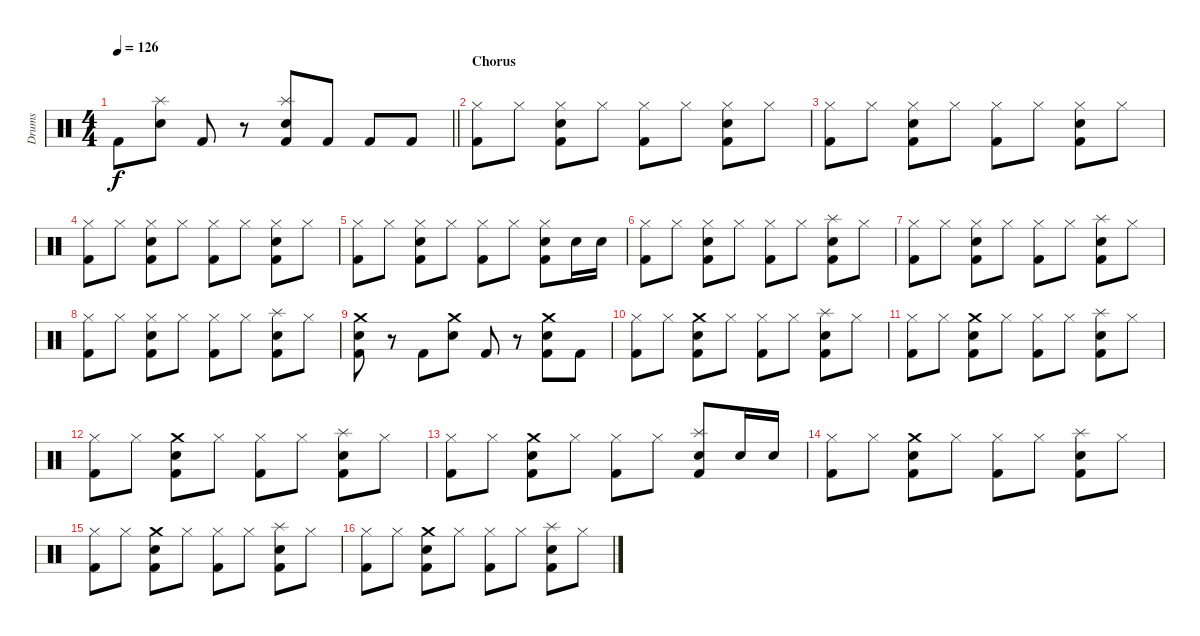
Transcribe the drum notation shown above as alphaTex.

\track ("Drums" "Drums") {instrument percussion}
\staff {score}
\articulation defaults
\ts (4 4)
\tempo 126
\clef neutral
\barLineRight lightlight
\ks c "Kick (hit) 2".8{dy f}
("Splash (hit)" "Electric Snare (hit)").8 "Kick (hit) 2".8 r.8 ("Splash (hit)" "Electric Snare (hit)" "Kick (hit) 2").8 "Kick (hit) 2".8 "Kick (hit) 2".8 "Kick (hit) 2".8 |
\section ("" "Chorus")
("Hi-Hat (closed)" "Kick (hit) 2").8 "Hi-Hat (closed)".8 ("Hi-Hat (closed)" "Electric Snare (hit)" "Kick (hit) 2").8 "Hi-Hat (closed)".8 ("Hi-Hat (closed)" "Kick (hit) 2").8 "Hi-Hat (closed)".8 ("Hi-Hat (closed)" "Electric Snare (hit)" "Kick (hit) 2").8 "Hi-Hat (closed)".8 |
("Hi-Hat (closed)" "Kick (hit) 2").8 "Hi-Hat (closed)".8 ("Hi-Hat (closed)" "Electric Snare (hit)" "Kick (hit) 2").8 "Hi-Hat (closed)".8 ("Hi-Hat (closed)" "Kick (hit) 2").8 "Hi-Hat (closed)".8 ("Hi-Hat (closed)" "Electric Snare (hit)" "Kick (hit) 2").8 "Hi-Hat (closed)".8 |
("Hi-Hat (closed)" "Kick (hit) 2").8 "Hi-Hat (closed)".8 ("Hi-Hat (closed)" "Electric Snare (hit)" "Kick (hit) 2").8 "Hi-Hat (closed)".8 ("Hi-Hat (closed)" "Kick (hit) 2").8 "Hi-Hat (closed)".8 ("Hi-Hat (closed)" "Electric Snare (hit)" "Kick (hit) 2").8 "Hi-Hat (closed)".8 |
("Hi-Hat (closed)" "Kick (hit) 2").8 "Hi-Hat (closed)".8 ("Hi-Hat (closed)" "Electric Snare (hit)" "Kick (hit) 2").8 "Hi-Hat (closed)".8 ("Hi-Hat (closed)" "Kick (hit) 2").8 "Hi-Hat (closed)".8 ("Hi-Hat (closed)" "Electric Snare (hit)" "Kick (hit) 2").8 "Electric Snare (hit)".16 "Electric Snare (hit)".16 |
("Hi-Hat (closed)" "Kick (hit) 2").8 "Hi-Hat (closed)".8 ("Hi-Hat (closed)" "Electric Snare (hit)" "Kick (hit) 2").8 "Hi-Hat (closed)".8 ("Hi-Hat (closed)" "Kick (hit) 2").8 "Hi-Hat (closed)".8 ("Splash (hit)" "Electric Snare (hit)" "Kick (hit) 2").8 "Hi-Hat (closed)".8 |
("Hi-Hat (closed)" "Kick (hit) 2").8 "Hi-Hat (closed)".8 ("Hi-Hat (closed)" "Electric Snare (hit)" "Kick (hit) 2").8 "Hi-Hat (closed)".8 ("Hi-Hat (closed)" "Kick (hit) 2").8 "Hi-Hat (closed)".8 ("Splash (hit)" "Electric Snare (hit)" "Kick (hit) 2").8 "Hi-Hat (closed)".8 |
("Hi-Hat (closed)" "Kick (hit) 2").8 "Hi-Hat (closed)".8 ("Hi-Hat (closed)" "Electric Snare (hit)" "Kick (hit) 2").8 "Hi-Hat (closed)".8 ("Hi-Hat (closed)" "Kick (hit) 2").8 "Hi-Hat (closed)".8 ("Splash (hit)" "Electric Snare (hit)" "Kick (hit) 2").8 "Hi-Hat (closed)".8 |
("Crash medium (hit)" "Electric Snare (hit)" "Kick (hit) 2").8 r.8 "Kick (hit) 2".8 ("Crash medium (hit)" "Electric Snare (hit)").8 "Kick (hit) 2".8 r.8 ("Crash medium (hit)" "Electric Snare (hit)" "Kick (hit) 2").8 "Kick (hit) 2".8 |
("Hi-Hat (closed)" "Kick (hit) 2").8 "Hi-Hat (closed)".8 ("Crash medium (hit)" "Electric Snare (hit)" "Kick (hit) 2").8 "Hi-Hat (closed)".8 ("Hi-Hat (closed)" "Kick (hit) 2").8 "Hi-Hat (closed)".8 ("Splash (hit)" "Electric Snare (hit)" "Kick (hit) 2").8 "Hi-Hat (closed)".8 |
("Hi-Hat (closed)" "Kick (hit) 2").8 "Hi-Hat (closed)".8 ("Crash medium (hit)" "Electric Snare (hit)" "Kick (hit) 2").8 "Hi-Hat (closed)".8 ("Hi-Hat (closed)" "Kick (hit) 2").8 "Hi-Hat (closed)".8 ("Splash (hit)" "Electric Snare (hit)" "Kick (hit) 2").8 "Hi-Hat (closed)".8 |
("Hi-Hat (closed)" "Kick (hit) 2").8 "Hi-Hat (closed)".8 ("Crash medium (hit)" "Electric Snare (hit)" "Kick (hit) 2").8 "Hi-Hat (closed)".8 ("Hi-Hat (closed)" "Kick (hit) 2").8 "Hi-Hat (closed)".8 ("Splash (hit)" "Electric Snare (hit)" "Kick (hit) 2").8 "Hi-Hat (closed)".8 |
("Hi-Hat (closed)" "Kick (hit) 2").8 "Hi-Hat (closed)".8 ("Crash medium (hit)" "Electric Snare (hit)" "Kick (hit) 2").8 "Hi-Hat (closed)".8 ("Hi-Hat (closed)" "Kick (hit) 2").8 "Hi-Hat (closed)".8 ("Splash (hit)" "Electric Snare (hit)" "Kick (hit) 2").8 "Electric Snare (hit)".16 "Electric Snare (hit)".16 |
("Hi-Hat (closed)" "Kick (hit) 2").8 "Hi-Hat (closed)".8 ("Crash medium (hit)" "Electric Snare (hit)" "Kick (hit) 2").8 "Hi-Hat (closed)".8 ("Hi-Hat (closed)" "Kick (hit) 2").8 "Hi-Hat (closed)".8 ("Splash (hit)" "Electric Snare (hit)" "Kick (hit) 2").8 "Hi-Hat (closed)".8 |
("Hi-Hat (closed)" "Kick (hit) 2").8 "Hi-Hat (closed)".8 ("Crash medium (hit)" "Electric Snare (hit)" "Kick (hit) 2").8 "Hi-Hat (closed)".8 ("Hi-Hat (closed)" "Kick (hit) 2").8 "Hi-Hat (closed)".8 ("Splash (hit)" "Electric Snare (hit)" "Kick (hit) 2").8 "Hi-Hat (closed)".8 |
("Hi-Hat (closed)" "Kick (hit) 2").8 "Hi-Hat (closed)".8 ("Crash medium (hit)" "Electric Snare (hit)" "Kick (hit) 2").8 "Hi-Hat (closed)".8 ("Hi-Hat (closed)" "Kick (hit) 2").8 "Hi-Hat (closed)".8 ("Splash (hit)" "Electric Snare (hit)" "Kick (hit) 2").8 "Hi-Hat (closed)".8
